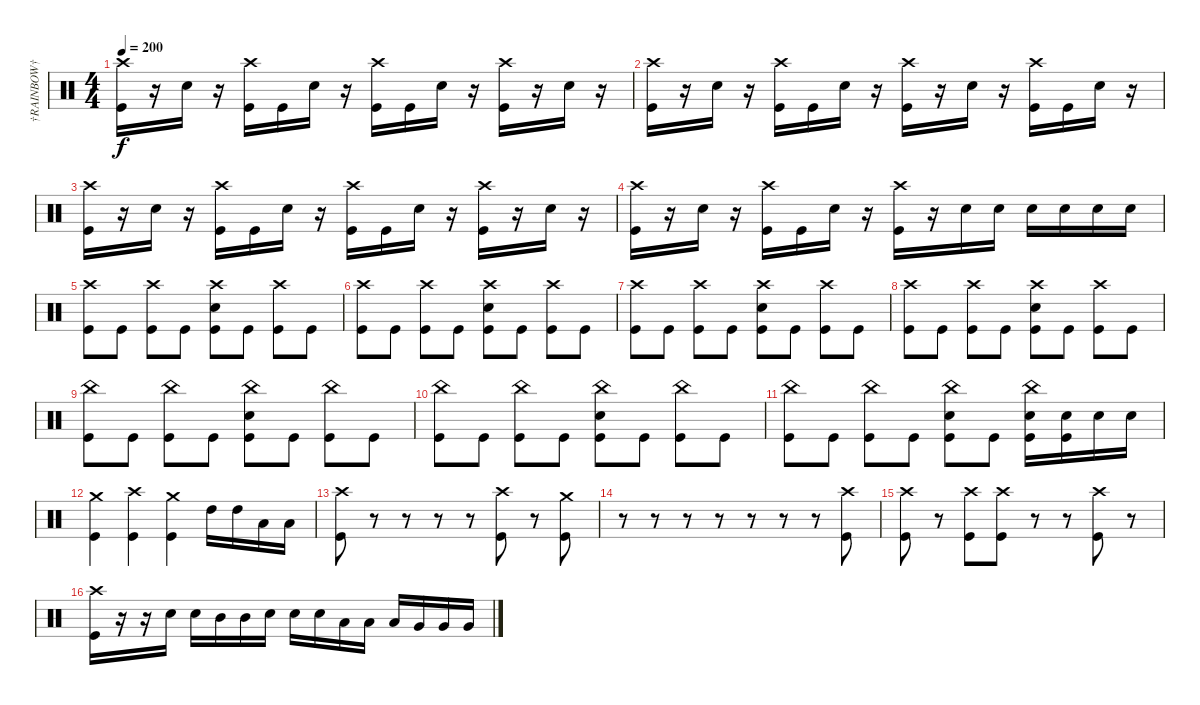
\track ("†RAINBOW†" "†RAINBOW†") {instrument percussion}
\staff {score}
\articulation defaults
\ts (4 4)
\tempo 200
\clef neutral
\ks c
("Crash high (hit)" "Kick (hit)").16{dy f} r.16 "Electric Snare (hit)".16 r.16 ("Crash high (hit)" "Kick (hit)").16 "Kick (hit)".16 "Electric Snare (hit)".16 r.16 ("Crash high (hit)" "Kick (hit)").16 "Kick (hit)".16 "Electric Snare (hit)".16 r.16 ("Crash high (hit)" "Kick (hit)").16 r.16 "Electric Snare (hit)".16 r.16 |
("Crash high (hit)" "Kick (hit)").16 r.16 "Electric Snare (hit)".16 r.16 ("Crash high (hit)" "Kick (hit)").16 "Kick (hit)".16 "Electric Snare (hit)".16 r.16 ("Crash high (hit)" "Kick (hit)").16 r.16 "Electric Snare (hit)".16 r.16 ("Crash high (hit)" "Kick (hit)").16 "Kick (hit)".16 "Electric Snare (hit)".16 r.16 |
("Crash high (hit)" "Kick (hit)").16 r.16 "Electric Snare (hit)".16 r.16 ("Crash high (hit)" "Kick (hit)").16 "Kick (hit)".16 "Electric Snare (hit)".16 r.16 ("Crash high (hit)" "Kick (hit)").16 "Kick (hit)".16 "Electric Snare (hit)".16 r.16 ("Crash high (hit)" "Kick (hit)").16 r.16 "Electric Snare (hit)".16 r.16 |
("Crash high (hit)" "Kick (hit)").16 r.16 "Electric Snare (hit)".16 r.16 ("Crash high (hit)" "Kick (hit)").16 "Kick (hit)".16 "Electric Snare (hit)".16 r.16 ("Crash high (hit)" "Kick (hit)").16 r.16 "Electric Snare (hit)".16 "Electric Snare (hit)".16 "Electric Snare (hit)".16 "Electric Snare (hit)".16 "Electric Snare (hit)".16 "Electric Snare (hit)".16 |
("Crash high (hit)" "Kick (hit)").8 "Kick (hit)".8 ("Crash high (hit)" "Kick (hit)").8 "Kick (hit)".8 ("Crash high (hit)" "Electric Snare (hit)" "Kick (hit)").8 "Kick (hit)".8 ("Crash high (hit)" "Kick (hit)").8 "Kick (hit)".8 |
("Crash high (hit)" "Kick (hit)").8 "Kick (hit)".8 ("Crash high (hit)" "Kick (hit)").8 "Kick (hit)".8 ("Crash high (hit)" "Electric Snare (hit)" "Kick (hit)").8 "Kick (hit)".8 ("Crash high (hit)" "Kick (hit)").8 "Kick (hit)".8 |
("Crash high (hit)" "Kick (hit)").8 "Kick (hit)".8 ("Crash high (hit)" "Kick (hit)").8 "Kick (hit)".8 ("Crash high (hit)" "Electric Snare (hit)" "Kick (hit)").8 "Kick (hit)".8 ("Crash high (hit)" "Kick (hit)").8 "Kick (hit)".8 |
("Crash high (hit)" "Kick (hit)").8 "Kick (hit)".8 ("Crash high (hit)" "Kick (hit)").8 "Kick (hit)".8 ("Crash high (hit)" "Electric Snare (hit)" "Kick (hit)").8 "Kick (hit)".8 ("Crash high (hit)" "Kick (hit)").8 "Kick (hit)".8 |
("China (hit)" "Kick (hit)").8 "Kick (hit)".8 ("China (hit)" "Kick (hit)").8 "Kick (hit)".8 ("China (hit)" "Electric Snare (hit)" "Kick (hit)").8 "Kick (hit)".8 ("China (hit)" "Kick (hit)").8 "Kick (hit)".8 |
("China (hit)" "Kick (hit)").8 "Kick (hit)".8 ("China (hit)" "Kick (hit)").8 "Kick (hit)".8 ("China (hit)" "Electric Snare (hit)" "Kick (hit)").8 "Kick (hit)".8 ("China (hit)" "Kick (hit)").8 "Kick (hit)".8 |
("China (hit)" "Kick (hit)").8 "Kick (hit)".8 ("China (hit)" "Kick (hit)").8 "Kick (hit)".8 ("China (hit)" "Electric Snare (hit)" "Kick (hit)").8 "Kick (hit)".8 ("China (hit)" "Electric Snare (hit)" "Kick (hit)").16 ("Electric Snare (hit)" "Kick (hit)").16 "Electric Snare (hit)".16 "Electric Snare (hit)".16 |
("Crash medium (hit)" "Kick (hit)").4 ("Crash high (hit)" "Kick (hit)").4 ("Crash medium (hit)" "Kick (hit)").4 "High Tom (hit)".16 "High Tom (hit)".16 "Low Tom (hit)".16 "Low Tom (hit)".16 |
("Crash high (hit)" "Kick (hit)").8 r.8 r.8 r.8 r.8 ("Crash high (hit)" "Kick (hit)").8 r.8 ("Crash medium (hit)" "Kick (hit)").8 |
r.8 r.8 r.8 r.8 r.8 r.8 r.8 ("Crash high (hit)" "Kick (hit)").8 |
("Crash high (hit)" "Kick (hit)").8 r.8 ("Crash high (hit)" "Kick (hit)").8 ("Crash high (hit)" "Kick (hit)").8 r.8 r.8 ("Crash high (hit)" "Kick (hit)").8 r.8 |
("Crash high (hit)" "Kick (hit)").16 r.16 r.16 "Electric Snare (hit)".16 "Electric Snare (hit)".16 "Mid Tom (hit)".16 "Mid Tom (hit)".16 "Electric Snare (hit)".16 "Electric Snare (hit)".16 "Electric Snare (hit)".16 "Low Tom (hit)".16 "Low Tom (hit)".16 "Low Tom (hit)".16 "Very Low Tom (hit)".16 "Very Low Tom (hit)".16 "Very Low Tom (hit)".16
